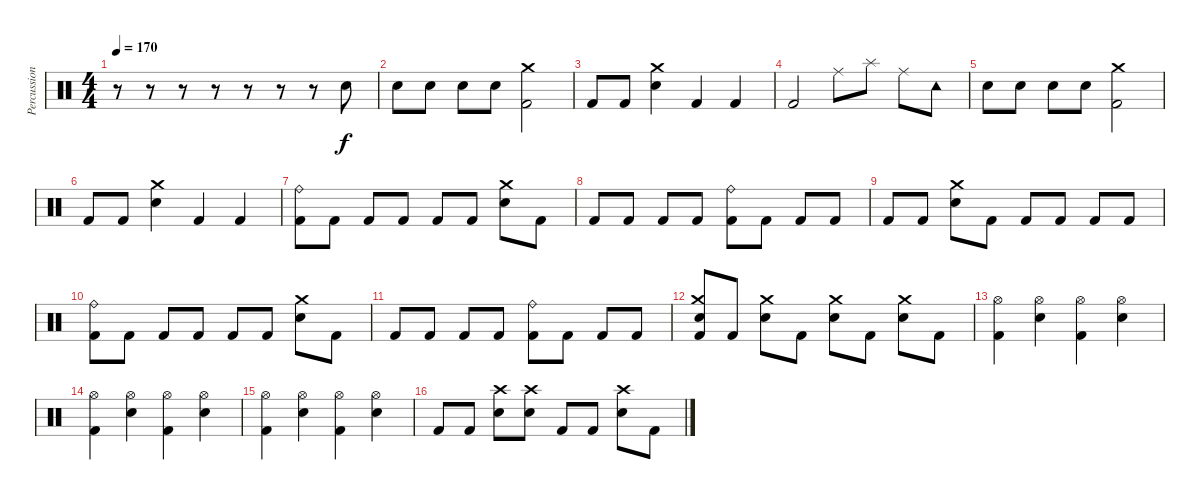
\track ("Percussion" "Percussion") {instrument percussion}
\staff {score}
\articulation defaults
\ts (4 4)
\tempo 170
\clef neutral
\ks c
r.8{dy f} r.8 r.8 r.8 r.8 r.8 r.8 "Snare (hit) 2".8 |
"Snare (hit) 2".8 "Snare (hit) 2".8 "Snare (hit) 2".8 "Snare (hit) 2".8 ("Crash medium (hit)" "Kick (hit) 2").2 |
"Kick (hit) 2".8 "Kick (hit) 2".8 ("Crash medium (hit)" "Snare (hit) 2").4 "Kick (hit) 2".4 "Kick (hit) 2".4 |
"Kick (hit) 2".2 "Ride (middle)".8 "Splash (hit)".8 "Ride (middle)".8 "Tambourine (hit)".8 |
"Snare (hit) 2".8 "Snare (hit) 2".8 "Snare (hit) 2".8 "Snare (hit) 2".8 ("Crash medium (hit)" "Kick (hit) 2").2 |
"Kick (hit) 2".8 "Kick (hit) 2".8 ("Crash medium (hit)" "Snare (hit) 2").4 "Kick (hit) 2".4 "Kick (hit) 2".4 |
("Ride (bell)" "Kick (hit) 2").8 "Kick (hit) 2".8 "Kick (hit) 2".8 "Kick (hit) 2".8 "Kick (hit) 2".8 "Kick (hit) 2".8 ("Crash medium (hit)" "Snare (hit) 2").8 "Kick (hit) 2".8 |
"Kick (hit) 2".8 "Kick (hit) 2".8 "Kick (hit) 2".8 "Kick (hit) 2".8 ("Ride (bell)" "Kick (hit) 2").8 "Kick (hit) 2".8 "Kick (hit) 2".8 "Kick (hit) 2".8 |
"Kick (hit) 2".8 "Kick (hit) 2".8 ("Crash medium (hit)" "Snare (hit) 2").8 "Kick (hit) 2".8 "Kick (hit) 2".8 "Kick (hit) 2".8 "Kick (hit) 2".8 "Kick (hit) 2".8 |
("Ride (bell)" "Kick (hit) 2").8 "Kick (hit) 2".8 "Kick (hit) 2".8 "Kick (hit) 2".8 "Kick (hit) 2".8 "Kick (hit) 2".8 ("Crash medium (hit)" "Snare (hit) 2").8 "Kick (hit) 2".8 |
"Kick (hit) 2".8 "Kick (hit) 2".8 "Kick (hit) 2".8 "Kick (hit) 2".8 ("Ride (bell)" "Kick (hit) 2").8 "Kick (hit) 2".8 "Kick (hit) 2".8 "Kick (hit) 2".8 |
("Crash medium (hit)" "Snare (hit) 2" "Kick (hit) 2").8 "Kick (hit) 2".8 ("Crash medium (hit)" "Snare (hit) 2").8 "Kick (hit) 2".8 ("Crash medium (hit)" "Snare (hit) 2").8 "Kick (hit) 2".8 ("Crash medium (hit)" "Snare (hit) 2").8 "Kick (hit) 2".8 |
("Hi-Hat (open)" "Kick (hit) 2").4 ("Hi-Hat (open)" "Snare (hit) 2").4 ("Hi-Hat (open)" "Kick (hit) 2").4 ("Hi-Hat (open)" "Snare (hit) 2").4 |
("Hi-Hat (open)" "Kick (hit) 2").4 ("Hi-Hat (open)" "Snare (hit) 2").4 ("Hi-Hat (open)" "Kick (hit) 2").4 ("Hi-Hat (open)" "Snare (hit) 2").4 |
("Hi-Hat (open)" "Kick (hit) 2").4 ("Hi-Hat (open)" "Snare (hit) 2").4 ("Hi-Hat (open)" "Kick (hit) 2").4 ("Hi-Hat (open)" "Snare (hit) 2").4 |
"Kick (hit) 2".8 "Kick (hit) 2".8 ("Crash high (hit)" "Snare (hit) 2").8 ("Crash high (hit)" "Snare (hit) 2").8 "Kick (hit) 2".8 "Kick (hit) 2".8 ("Crash high (hit)" "Snare (hit) 2").8 "Kick (hit) 2".8
